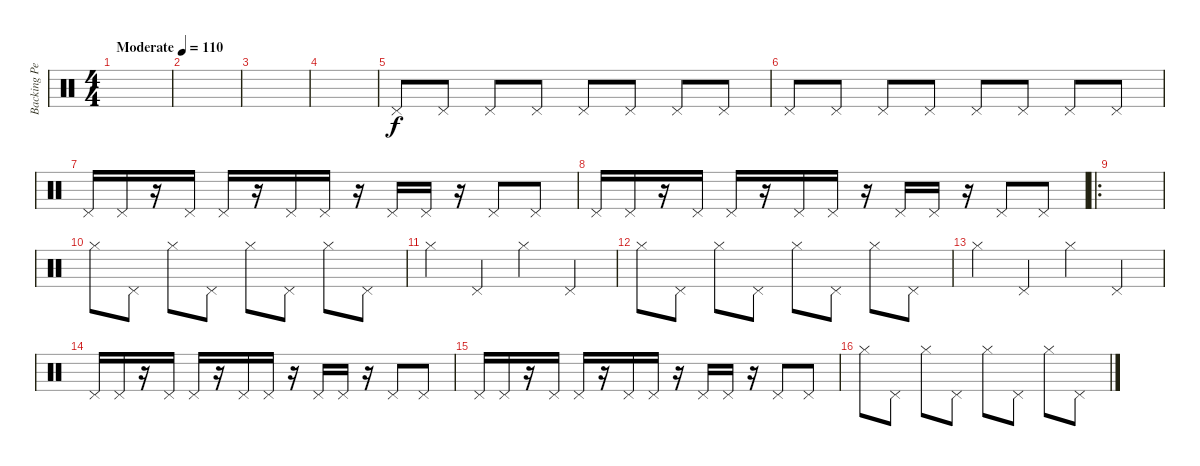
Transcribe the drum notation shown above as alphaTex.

\track ("Backing Percussion" "Backing Pe") {instrument percussion}
\staff {score}
\articulation defaults
\ts (4 4)
\tempo (110 "Moderate")
\clef neutral
\ks c
|
|
|
|
"Pedal Hi-Hat (hit)".8 "Pedal Hi-Hat (hit)".8 "Pedal Hi-Hat (hit)".8 "Pedal Hi-Hat (hit)".8 "Pedal Hi-Hat (hit)".8 "Pedal Hi-Hat (hit)".8 "Pedal Hi-Hat (hit)".8 "Pedal Hi-Hat (hit)".8 |
"Pedal Hi-Hat (hit)".8 "Pedal Hi-Hat (hit)".8 "Pedal Hi-Hat (hit)".8 "Pedal Hi-Hat (hit)".8 "Pedal Hi-Hat (hit)".8 "Pedal Hi-Hat (hit)".8 "Pedal Hi-Hat (hit)".8 "Pedal Hi-Hat (hit)".8 |
"Pedal Hi-Hat (hit)".16 "Pedal Hi-Hat (hit)".16 r.16 "Pedal Hi-Hat (hit)".16 "Pedal Hi-Hat (hit)".16 r.16 "Pedal Hi-Hat (hit)".16 "Pedal Hi-Hat (hit)".16 r.16 "Pedal Hi-Hat (hit)".16 "Pedal Hi-Hat (hit)".16 r.16 "Pedal Hi-Hat (hit)".8 "Pedal Hi-Hat (hit)".8 |
"Pedal Hi-Hat (hit)".16 "Pedal Hi-Hat (hit)".16 r.16 "Pedal Hi-Hat (hit)".16 "Pedal Hi-Hat (hit)".16 r.16 "Pedal Hi-Hat (hit)".16 "Pedal Hi-Hat (hit)".16 r.16 "Pedal Hi-Hat (hit)".16 "Pedal Hi-Hat (hit)".16 r.16 "Pedal Hi-Hat (hit)".8 "Pedal Hi-Hat (hit)".8 |
\ro
|
"Hi-Hat (closed)".8 "Pedal Hi-Hat (hit)".8 "Hi-Hat (closed)".8 "Pedal Hi-Hat (hit)".8 "Hi-Hat (closed)".8 "Pedal Hi-Hat (hit)".8 "Hi-Hat (closed)".8 "Pedal Hi-Hat (hit)".8 |
"Hi-Hat (closed)".4 "Pedal Hi-Hat (hit)".4 "Hi-Hat (closed)".4 "Pedal Hi-Hat (hit)".4 |
"Hi-Hat (closed)".8 "Pedal Hi-Hat (hit)".8 "Hi-Hat (closed)".8 "Pedal Hi-Hat (hit)".8 "Hi-Hat (closed)".8 "Pedal Hi-Hat (hit)".8 "Hi-Hat (closed)".8 "Pedal Hi-Hat (hit)".8 |
"Hi-Hat (closed)".4 "Pedal Hi-Hat (hit)".4 "Hi-Hat (closed)".4 "Pedal Hi-Hat (hit)".4 |
"Pedal Hi-Hat (hit)".16 "Pedal Hi-Hat (hit)".16 r.16 "Pedal Hi-Hat (hit)".16 "Pedal Hi-Hat (hit)".16 r.16 "Pedal Hi-Hat (hit)".16 "Pedal Hi-Hat (hit)".16 r.16 "Pedal Hi-Hat (hit)".16 "Pedal Hi-Hat (hit)".16 r.16 "Pedal Hi-Hat (hit)".8 "Pedal Hi-Hat (hit)".8 |
"Pedal Hi-Hat (hit)".16 "Pedal Hi-Hat (hit)".16 r.16 "Pedal Hi-Hat (hit)".16 "Pedal Hi-Hat (hit)".16 r.16 "Pedal Hi-Hat (hit)".16 "Pedal Hi-Hat (hit)".16 r.16 "Pedal Hi-Hat (hit)".16 "Pedal Hi-Hat (hit)".16 r.16 "Pedal Hi-Hat (hit)".8 "Pedal Hi-Hat (hit)".8 |
"Hi-Hat (closed)".8 "Pedal Hi-Hat (hit)".8 "Hi-Hat (closed)".8 "Pedal Hi-Hat (hit)".8 "Hi-Hat (closed)".8 "Pedal Hi-Hat (hit)".8 "Hi-Hat (closed)".8 "Pedal Hi-Hat (hit)".8
